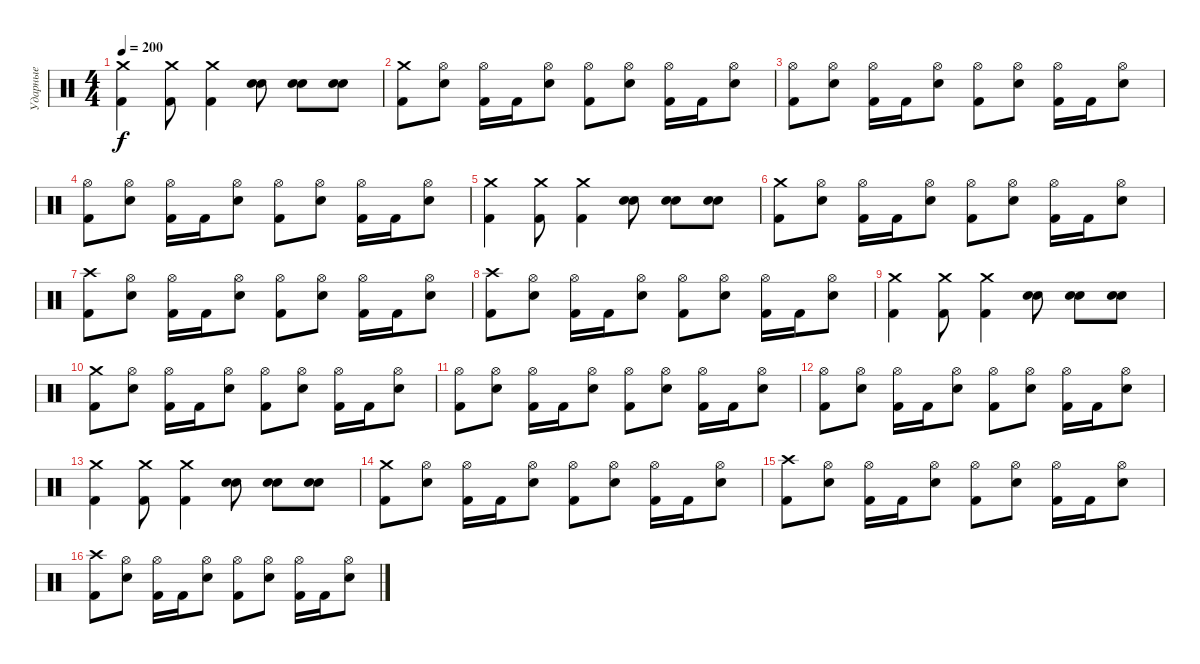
\track ("Ударные" "Ударные") {instrument percussion}
\staff {score}
\articulation defaults
\ts (4 4)
\tempo 200
\clef neutral
\ks c
("Crash medium (hit)" "Kick (hit) 2").4{dy f} ("Crash medium (hit)" "Kick (hit) 2").8 ("Crash medium (hit)" "Kick (hit) 2").4 ("Electric Snare (hit)" "Electric Snare (hit)").8 ("Electric Snare (hit)" "Electric Snare (hit)").8 ("Electric Snare (hit)" "Electric Snare (hit)").8 |
("Crash medium (hit)" "Kick (hit) 2").8 ("Hi-Hat (open)" "Electric Snare (hit)").8 ("Hi-Hat (open)" "Kick (hit) 2").16 "Kick (hit) 2".16 ("Hi-Hat (open)" "Electric Snare (hit)").8 ("Hi-Hat (open)" "Kick (hit) 2").8 ("Hi-Hat (open)" "Electric Snare (hit)").8 ("Hi-Hat (open)" "Kick (hit) 2").16 "Kick (hit) 2".16 ("Hi-Hat (open)" "Electric Snare (hit)").8 |
("Hi-Hat (open)" "Kick (hit) 2").8 ("Hi-Hat (open)" "Electric Snare (hit)").8 ("Hi-Hat (open)" "Kick (hit) 2").16 "Kick (hit) 2".16 ("Hi-Hat (open)" "Electric Snare (hit)").8 ("Hi-Hat (open)" "Kick (hit) 2").8 ("Hi-Hat (open)" "Electric Snare (hit)").8 ("Hi-Hat (open)" "Kick (hit) 2").16 "Kick (hit) 2".16 ("Hi-Hat (open)" "Electric Snare (hit)").8 |
("Hi-Hat (open)" "Kick (hit) 2").8 ("Hi-Hat (open)" "Electric Snare (hit)").8 ("Hi-Hat (open)" "Kick (hit) 2").16 "Kick (hit) 2".16 ("Hi-Hat (open)" "Electric Snare (hit)").8 ("Hi-Hat (open)" "Kick (hit) 2").8 ("Hi-Hat (open)" "Electric Snare (hit)").8 ("Hi-Hat (open)" "Kick (hit) 2").16 "Kick (hit) 2".16 ("Hi-Hat (open)" "Electric Snare (hit)").8 |
("Crash medium (hit)" "Kick (hit) 2").4 ("Crash medium (hit)" "Kick (hit) 2").8 ("Crash medium (hit)" "Kick (hit) 2").4 ("Electric Snare (hit)" "Electric Snare (hit)").8 ("Electric Snare (hit)" "Electric Snare (hit)").8 ("Electric Snare (hit)" "Electric Snare (hit)").8 |
("Crash medium (hit)" "Kick (hit) 2").8 ("Hi-Hat (open)" "Electric Snare (hit)").8 ("Hi-Hat (open)" "Kick (hit) 2").16 "Kick (hit) 2".16 ("Hi-Hat (open)" "Electric Snare (hit)").8 ("Hi-Hat (open)" "Kick (hit) 2").8 ("Hi-Hat (open)" "Electric Snare (hit)").8 ("Hi-Hat (open)" "Kick (hit) 2").16 "Kick (hit) 2".16 ("Hi-Hat (open)" "Electric Snare (hit)").8 |
("Crash high (hit)" "Kick (hit) 2").8 ("Hi-Hat (open)" "Electric Snare (hit)").8 ("Hi-Hat (open)" "Kick (hit) 2").16 "Kick (hit) 2".16 ("Hi-Hat (open)" "Electric Snare (hit)").8 ("Hi-Hat (open)" "Kick (hit) 2").8 ("Hi-Hat (open)" "Electric Snare (hit)").8 ("Hi-Hat (open)" "Kick (hit) 2").16 "Kick (hit) 2".16 ("Hi-Hat (open)" "Electric Snare (hit)").8 |
("Crash high (hit)" "Kick (hit) 2").8 ("Hi-Hat (open)" "Electric Snare (hit)").8 ("Hi-Hat (open)" "Kick (hit) 2").16 "Kick (hit) 2".16 ("Hi-Hat (open)" "Electric Snare (hit)").8 ("Hi-Hat (open)" "Kick (hit) 2").8 ("Hi-Hat (open)" "Electric Snare (hit)").8 ("Hi-Hat (open)" "Kick (hit) 2").16 "Kick (hit) 2".16 ("Hi-Hat (open)" "Electric Snare (hit)").8 |
("Crash medium (hit)" "Kick (hit) 2").4 ("Crash medium (hit)" "Kick (hit) 2").8 ("Crash medium (hit)" "Kick (hit) 2").4 ("Electric Snare (hit)" "Electric Snare (hit)").8 ("Electric Snare (hit)" "Electric Snare (hit)").8 ("Electric Snare (hit)" "Electric Snare (hit)").8 |
("Crash medium (hit)" "Kick (hit) 2").8 ("Hi-Hat (open)" "Electric Snare (hit)").8 ("Hi-Hat (open)" "Kick (hit) 2").16 "Kick (hit) 2".16 ("Hi-Hat (open)" "Electric Snare (hit)").8 ("Hi-Hat (open)" "Kick (hit) 2").8 ("Hi-Hat (open)" "Electric Snare (hit)").8 ("Hi-Hat (open)" "Kick (hit) 2").16 "Kick (hit) 2".16 ("Hi-Hat (open)" "Electric Snare (hit)").8 |
("Hi-Hat (open)" "Kick (hit) 2").8 ("Hi-Hat (open)" "Electric Snare (hit)").8 ("Hi-Hat (open)" "Kick (hit) 2").16 "Kick (hit) 2".16 ("Hi-Hat (open)" "Electric Snare (hit)").8 ("Hi-Hat (open)" "Kick (hit) 2").8 ("Hi-Hat (open)" "Electric Snare (hit)").8 ("Hi-Hat (open)" "Kick (hit) 2").16 "Kick (hit) 2".16 ("Hi-Hat (open)" "Electric Snare (hit)").8 |
("Hi-Hat (open)" "Kick (hit) 2").8 ("Hi-Hat (open)" "Electric Snare (hit)").8 ("Hi-Hat (open)" "Kick (hit) 2").16 "Kick (hit) 2".16 ("Hi-Hat (open)" "Electric Snare (hit)").8 ("Hi-Hat (open)" "Kick (hit) 2").8 ("Hi-Hat (open)" "Electric Snare (hit)").8 ("Hi-Hat (open)" "Kick (hit) 2").16 "Kick (hit) 2".16 ("Hi-Hat (open)" "Electric Snare (hit)").8 |
("Crash medium (hit)" "Kick (hit) 2").4 ("Crash medium (hit)" "Kick (hit) 2").8 ("Crash medium (hit)" "Kick (hit) 2").4 ("Electric Snare (hit)" "Electric Snare (hit)").8 ("Electric Snare (hit)" "Electric Snare (hit)").8 ("Electric Snare (hit)" "Electric Snare (hit)").8 |
("Crash medium (hit)" "Kick (hit) 2").8 ("Hi-Hat (open)" "Electric Snare (hit)").8 ("Hi-Hat (open)" "Kick (hit) 2").16 "Kick (hit) 2".16 ("Hi-Hat (open)" "Electric Snare (hit)").8 ("Hi-Hat (open)" "Kick (hit) 2").8 ("Hi-Hat (open)" "Electric Snare (hit)").8 ("Hi-Hat (open)" "Kick (hit) 2").16 "Kick (hit) 2".16 ("Hi-Hat (open)" "Electric Snare (hit)").8 |
("Crash high (hit)" "Kick (hit) 2").8 ("Hi-Hat (open)" "Electric Snare (hit)").8 ("Hi-Hat (open)" "Kick (hit) 2").16 "Kick (hit) 2".16 ("Hi-Hat (open)" "Electric Snare (hit)").8 ("Hi-Hat (open)" "Kick (hit) 2").8 ("Hi-Hat (open)" "Electric Snare (hit)").8 ("Hi-Hat (open)" "Kick (hit) 2").16 "Kick (hit) 2".16 ("Hi-Hat (open)" "Electric Snare (hit)").8 |
("Crash high (hit)" "Kick (hit) 2").8 ("Hi-Hat (open)" "Electric Snare (hit)").8 ("Hi-Hat (open)" "Kick (hit) 2").16 "Kick (hit) 2".16 ("Hi-Hat (open)" "Electric Snare (hit)").8 ("Hi-Hat (open)" "Kick (hit) 2").8 ("Hi-Hat (open)" "Electric Snare (hit)").8 ("Hi-Hat (open)" "Kick (hit) 2").16 "Kick (hit) 2".16 ("Hi-Hat (open)" "Electric Snare (hit)").8
